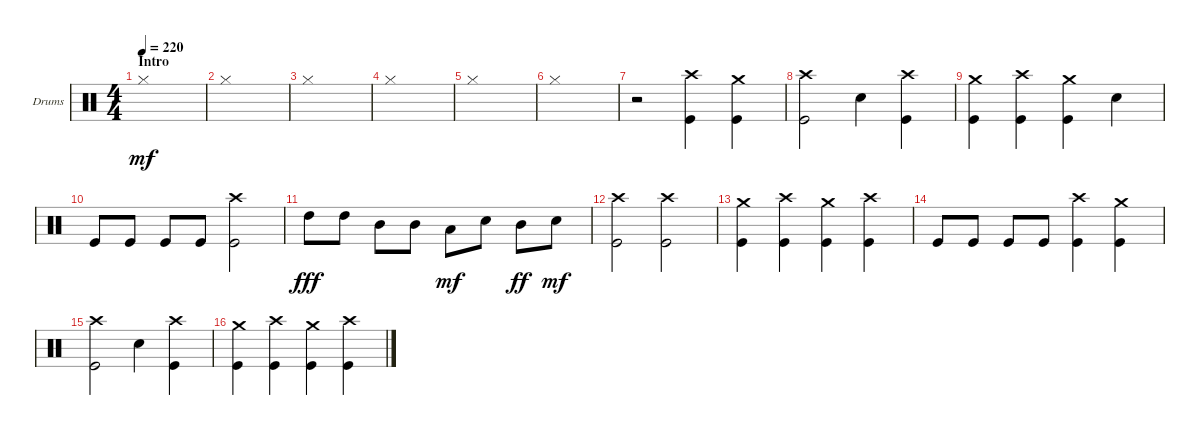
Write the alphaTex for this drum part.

\defaultSystemsLayout 4
\bracketExtendMode groupsimilarinstruments
\firstSystemTrackNameOrientation horizontal
\otherSystemsTrackNameOrientation horizontal
\track ("Drumkit" "Drums") {instrument percussion}
\staff {score}
\articulation defaults
\ts (4 4)
\section ("" "Intro")
\tempo 220
\clef neutral
\ks c "Hi-Hat (closed)".1{dy mf}
|
"Hi-Hat (closed)".1 |
"Hi-Hat (closed)".1 |
"Hi-Hat (closed)".1 |
"Hi-Hat (closed)".1 |
"Hi-Hat (closed)".1 |
r.2 ("Crash high (hit)" "Kick (hit)").4 ("Crash medium (hit)" "Kick (hit)").4 |
("Crash high (hit)" "Kick (hit)").2 "Snare (hit) 2".4 ("Crash high (hit)" "Kick (hit)").4 |
("Crash medium (hit)" "Kick (hit)").4 ("Crash high (hit)" "Kick (hit)").4 ("Crash medium (hit)" "Kick (hit)").4 "Snare (hit) 2".4 |
"Kick (hit)".8 "Kick (hit)".8 "Kick (hit)".8 "Kick (hit)".8 ("Crash high (hit)" "Kick (hit)").2 |
"High Tom (hit)".8{dy fff} "High Tom (hit)".8 "Mid Tom (hit)".8 "Mid Tom (hit)".8 "Low Tom (hit)".8{dy mf} "Snare (hit) 2".8 "Mid Tom (hit)".8{dy ff} "Snare (hit) 2".8{dy mf} |
("Crash high (hit)" "Kick (hit)").2 ("Crash high (hit)" "Kick (hit)").2 |
("Crash medium (hit)" "Kick (hit)").4 ("Crash high (hit)" "Kick (hit)").4 ("Crash medium (hit)" "Kick (hit)").4 ("Crash high (hit)" "Kick (hit)").4 |
"Kick (hit)".8 "Kick (hit)".8 "Kick (hit)".8 "Kick (hit)".8 ("Crash high (hit)" "Kick (hit)").4 ("Crash medium (hit)" "Kick (hit)").4 |
("Crash high (hit)" "Kick (hit)").2 "Snare (hit) 2".4 ("Crash high (hit)" "Kick (hit)").4 |
("Crash medium (hit)" "Kick (hit)").4 ("Crash high (hit)" "Kick (hit)").4 ("Crash medium (hit)" "Kick (hit)").4 ("Crash high (hit)" "Kick (hit)").4
